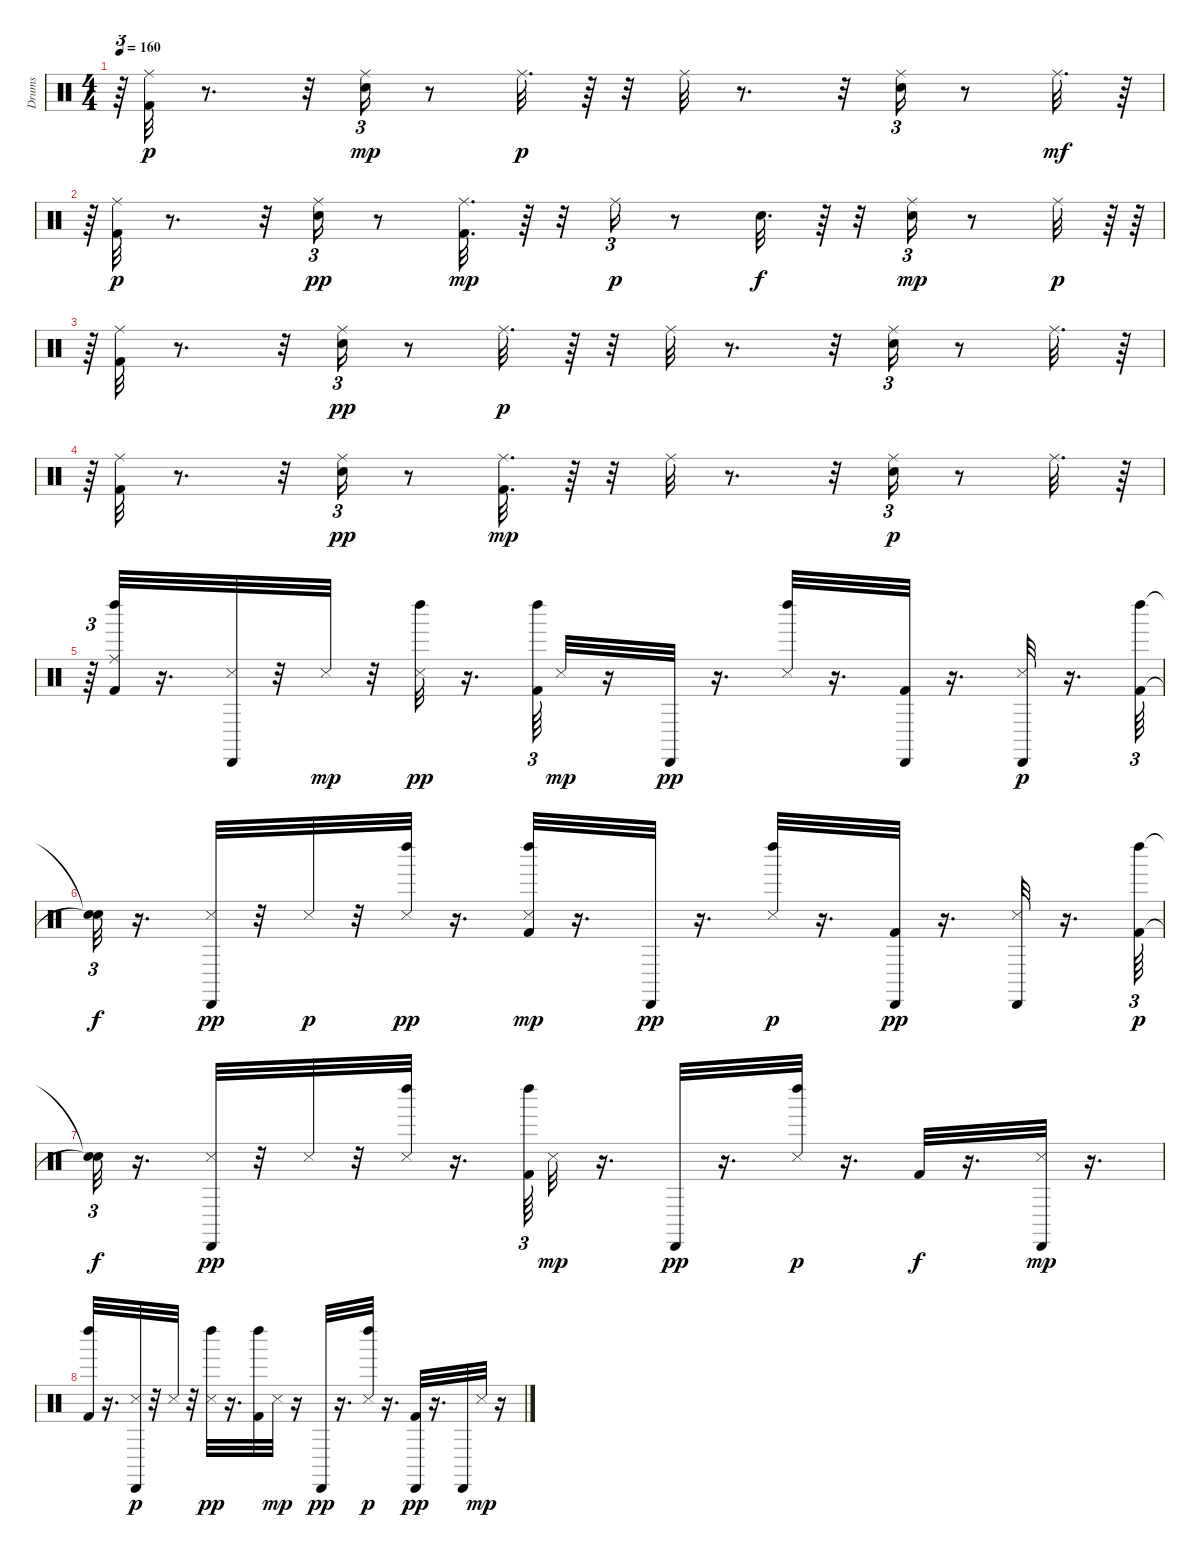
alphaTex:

\track ("Drums" "Drums") {instrument percussion}
\staff {score}
\articulation defaults
\ts (4 4)
\tempo 160
\clef neutral
\ks c
r.64{tu (3 2) dy p} ("Kick (hit) 2" "Ride (middle)").32 r.8{d} r.32 ("Ride (middle)" "Electric Snare (hit)").16{tu (3 2) dy mp} r.8 "Ride (middle)".32{d dy p} r.64 r.32 "Ride (middle)".32 r.8{d} r.32 ("Ride (middle)" "Electric Snare (hit)").16{tu (3 2)} r.8 "Ride (middle)".32{d dy mf} r.64 |
r.64{tu (3 2)} ("Kick (hit) 2" "Ride (middle)").32{dy p} r.8{d} r.32 ("Ride (middle)" "Electric Snare (hit)").16{tu (3 2) dy pp} r.8 ("Kick (hit) 2" "Ride (middle)").32{d dy mp} r.64 r.32 "Ride (middle)".16{tu (3 2) dy p} r.8 "Electric Snare (hit)".32{d dy f} r.64 r.32 ("Ride (middle)" "Electric Snare (hit)").16{tu (3 2) dy mp} r.8 "Ride (middle)".32{dy p} r.64{tu (3 2)} r.64{tu (3 2)} |
r.64{tu (3 2)} ("Kick (hit) 2" "Ride (middle)").32 r.8{d} r.32 ("Ride (middle)" "Electric Snare (hit)").16{tu (3 2) dy pp} r.8 "Ride (middle)".32{d dy p} r.64 r.32 "Ride (middle)".32 r.8{d} r.32 ("Ride (middle)" "Electric Snare (hit)").16{tu (3 2)} r.8 "Ride (middle)".32{d} r.64 |
r.64{tu (3 2)} ("Kick (hit) 2" "Ride (middle)").32 r.8{d} r.32 ("Ride (middle)" "Electric Snare (hit)").16{tu (3 2) dy pp} r.8 ("Kick (hit) 2" "Ride (middle)").32{d dy mp} r.64 r.32 "Ride (middle)".32 r.8{d} r.32 ("Ride (middle)" "Electric Snare (hit)").16{tu (3 2) dy p} r.8 "Ride (middle)".32{d} r.64 |
r.64{tu (3 2)} ("Kick (hit) 2" "Ride (middle)" "Left Maraca (hit)").32 r.16{d} ("Cabasa (hit)" "Snare (side stick) 3").32 r.32 "Snare (side stick) 3".32{dy mp} r.32 ("Snare (side stick) 3" "Left Maraca (hit)").32{dy pp} r.16{d} ("Kick (hit) 2" "Left Maraca (hit)").64{tu (3 2)} "Snare (side stick) 3".32{dy mp} r.16 "Cabasa (hit)".32{dy pp} r.16{d} ("Snare (side stick) 3" "Left Maraca (hit)").32 r.16{d} ("Kick (hit) 2" "Cabasa (hit)").32 r.16{d} ("Snare (side stick) 3" "Cabasa (hit)").32{dy p} r.16{d} ("Kick (hit) 2" "Left Maraca (hit)").64{tu (3 2)} |
("Snare (hit)"{t} "Snare (hit)"{t}).32{tu (3 2) dy f} r.16{d} ("Snare (side stick) 3" "Cabasa (hit)").32{dy pp} r.32 "Snare (side stick) 3".32{dy p} r.32 ("Snare (side stick) 3" "Left Maraca (hit)").32{dy pp} r.16{d} ("Kick (hit) 2" "Left Maraca (hit)" "Snare (side stick) 3").32{dy mp} r.16{d} "Cabasa (hit)".32{dy pp} r.16{d} ("Snare (side stick) 3" "Left Maraca (hit)").32{dy p} r.16{d} ("Kick (hit) 2" "Cabasa (hit)").32{dy pp} r.16{d} ("Snare (side stick) 3" "Cabasa (hit)").32 r.16{d} ("Kick (hit) 2" "Left Maraca (hit)").64{tu (3 2) dy p} |
("Snare (hit)"{t} "Snare (hit)"{t}).32{tu (3 2) dy f} r.16{d} ("Snare (side stick) 3" "Cabasa (hit)").32{dy pp} r.32 "Snare (side stick) 3".32 r.32 ("Snare (side stick) 3" "Left Maraca (hit)").32 r.16{d} ("Kick (hit) 2" "Left Maraca (hit)").64{tu (3 2)} "Snare (side stick) 3".32{dy mp} r.16{d} "Cabasa (hit)".32{dy pp} r.16{d} ("Snare (side stick) 3" "Left Maraca (hit)").32{dy p} r.16{d} "Kick (hit) 2".32{dy f} r.16{d} ("Cabasa (hit)" "Snare (side stick) 3").32{dy mp} r.16{d} |
("Kick (hit) 2" "Left Maraca (hit)").32 r.16{d} ("Cabasa (hit)" "Snare (side stick) 3").32{dy p} r.32 "Snare (side stick) 3".32 r.32 ("Snare (side stick) 3" "Left Maraca (hit)").32{dy pp} r.16{d} ("Kick (hit) 2" "Left Maraca (hit)").32 "Snare (side stick) 3".32{dy mp} r.16 "Cabasa (hit)".32{dy pp} r.16{d} ("Snare (side stick) 3" "Left Maraca (hit)").32{dy p} r.16{d} ("Kick (hit) 2" "Cabasa (hit)").32{dy pp} r.16{d} "Cabasa (hit)".32 "Snare (side stick) 3".32{dy mp} r.16
